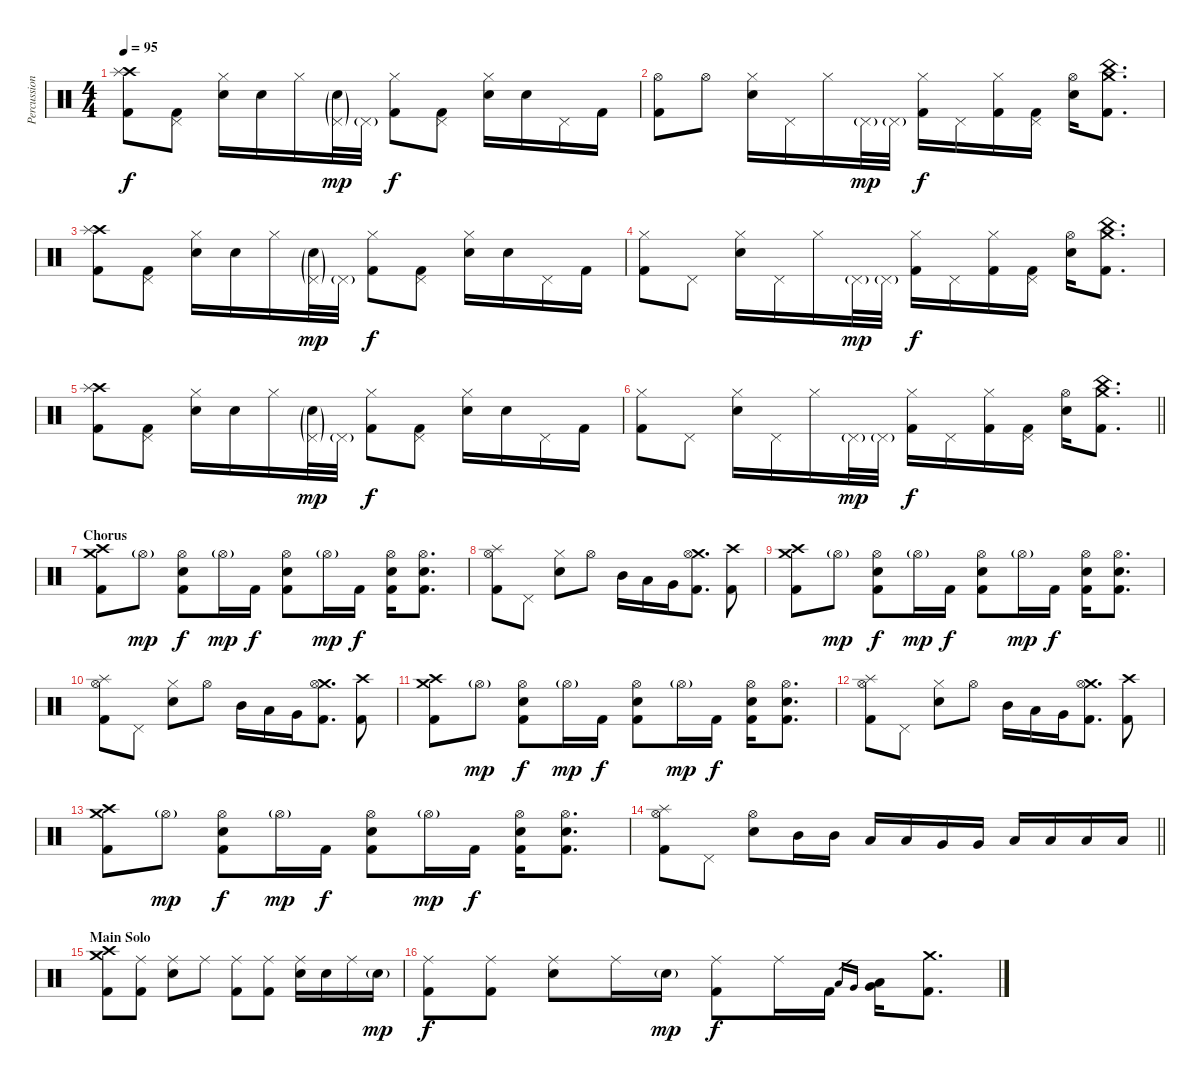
\track ("Percussion" "Percussion") {instrument percussion}
\staff {score}
\articulation defaults
\ts (4 4)
\tempo 95
\clef neutral
\ks c
("Crash high (hit)" "Splash (hit)" "Kick (hit) 2").8{dy f} ("Pedal Hi-Hat (hit)" "Kick (hit) 2").8 ("Snare (hit) 2" "Hi-Hat (closed)").16 "Snare (hit) 2".16 "Hi-Hat (closed)".16 ("Snare (hit) 2"{g} "Pedal Hi-Hat (hit)"{g}).32{dy mp} "Pedal Hi-Hat (hit)"{g}.32 ("Hi-Hat (closed)" "Kick (hit) 2").8{dy f} ("Pedal Hi-Hat (hit)" "Kick (hit) 2").8 ("Snare (hit) 2" "Hi-Hat (closed)").16 "Snare (hit) 2".16 "Pedal Hi-Hat (hit)".16 "Kick (hit) 2".16 |
("Hi-Hat (open)" "Kick (hit) 2").8 "Hi-Hat (open)".8 ("Snare (hit) 2" "Hi-Hat (closed)").16 "Pedal Hi-Hat (hit)".16 "Hi-Hat (closed)".16 "Pedal Hi-Hat (hit)"{g}.32{dy mp} "Pedal Hi-Hat (hit)"{g}.32 ("Hi-Hat (closed)" "Kick (hit) 2").16{dy f} "Pedal Hi-Hat (hit)".16 ("Hi-Hat (closed)" "Kick (hit) 2").16 ("Pedal Hi-Hat (hit)" "Kick (hit) 2").16 ("Snare (hit) 2" "Hi-Hat (open)").16 ("Crash medium (hit)" "China (hit)" "Kick (hit) 2").8{d} |
("Crash high (hit)" "Splash (hit)" "Kick (hit) 2").8 ("Pedal Hi-Hat (hit)" "Kick (hit) 2").8 ("Snare (hit) 2" "Hi-Hat (closed)").16 "Snare (hit) 2".16 "Hi-Hat (closed)".16 ("Snare (hit) 2"{g} "Pedal Hi-Hat (hit)"{g}).32{dy mp} "Pedal Hi-Hat (hit)"{g}.32 ("Hi-Hat (closed)" "Kick (hit) 2").8{dy f} ("Pedal Hi-Hat (hit)" "Kick (hit) 2").8 ("Snare (hit) 2" "Hi-Hat (closed)").16 "Snare (hit) 2".16 "Pedal Hi-Hat (hit)".16 "Kick (hit) 2".16 |
("Hi-Hat (closed)" "Kick (hit) 2").8 "Pedal Hi-Hat (hit)".8 ("Snare (hit) 2" "Hi-Hat (closed)").16 "Pedal Hi-Hat (hit)".16 "Hi-Hat (closed)".16 "Pedal Hi-Hat (hit)"{g}.32{dy mp} "Pedal Hi-Hat (hit)"{g}.32 ("Hi-Hat (closed)" "Kick (hit) 2").16{dy f} "Pedal Hi-Hat (hit)".16 ("Hi-Hat (closed)" "Kick (hit) 2").16 ("Pedal Hi-Hat (hit)" "Kick (hit) 2").16 ("Snare (hit) 2" "Hi-Hat (open)").16 ("Crash medium (hit)" "China (hit)" "Kick (hit) 2").8{d} |
("Crash high (hit)" "Splash (hit)" "Kick (hit) 2").8 ("Pedal Hi-Hat (hit)" "Kick (hit) 2").8 ("Snare (hit) 2" "Hi-Hat (closed)").16 "Snare (hit) 2".16 "Hi-Hat (closed)".16 ("Snare (hit) 2"{g} "Pedal Hi-Hat (hit)"{g}).32{dy mp} "Pedal Hi-Hat (hit)"{g}.32 ("Hi-Hat (closed)" "Kick (hit) 2").8{dy f} ("Pedal Hi-Hat (hit)" "Kick (hit) 2").8 ("Snare (hit) 2" "Hi-Hat (closed)").16 "Snare (hit) 2".16 "Pedal Hi-Hat (hit)".16 "Kick (hit) 2".16 |
\barLineRight lightlight
("Hi-Hat (closed)" "Kick (hit) 2").8 "Pedal Hi-Hat (hit)".8 ("Snare (hit) 2" "Hi-Hat (closed)").16 "Pedal Hi-Hat (hit)".16 "Hi-Hat (closed)".16 "Pedal Hi-Hat (hit)"{g}.32{dy mp} "Pedal Hi-Hat (hit)"{g}.32 ("Hi-Hat (closed)" "Kick (hit) 2").16{dy f} "Pedal Hi-Hat (hit)".16 ("Hi-Hat (closed)" "Kick (hit) 2").16 ("Pedal Hi-Hat (hit)" "Kick (hit) 2").16 ("Snare (hit) 2" "Hi-Hat (open)").16 ("Crash medium (hit)" "China (hit)" "Kick (hit) 2").8{d} |
\section ("" "Chorus")
("Crash medium (hit)" "Crash high (hit)" "Kick (hit) 2").8 "Hi-Hat (open)"{g}.8{dy mp} ("Snare (hit) 2" "Hi-Hat (open)" "Kick (hit) 2").8{dy f} "Hi-Hat (open)"{g}.16{dy mp} "Kick (hit) 2".16{dy f} ("Snare (hit) 2" "Hi-Hat (open)" "Kick (hit) 2").8 "Hi-Hat (open)"{g}.16{dy mp} "Kick (hit) 2".16{dy f} ("Snare (hit) 2" "Hi-Hat (open)" "Kick (hit) 2").16 ("Snare (hit) 2" "Hi-Hat (open)" "Kick (hit) 2").8{d} |
("Splash (hit)" "Hi-Hat (open)" "Kick (hit) 2").8 "Pedal Hi-Hat (hit)".8 ("Snare (hit) 2" "Hi-Hat (closed)").8 "Hi-Hat (open)".8 "Mid Tom (hit)".16 "Low Tom (hit)".16 "Very Low Tom (hit)".16 ("Crash medium (hit)" "Hi-Hat (open)" "Kick (hit) 2").8{d} ("Crash high (hit)" "Kick (hit) 2").8 |
("Crash medium (hit)" "Crash high (hit)" "Kick (hit) 2").8 "Hi-Hat (open)"{g}.8{dy mp} ("Snare (hit) 2" "Hi-Hat (open)" "Kick (hit) 2").8{dy f} "Hi-Hat (open)"{g}.16{dy mp} "Kick (hit) 2".16{dy f} ("Snare (hit) 2" "Hi-Hat (open)" "Kick (hit) 2").8 "Hi-Hat (open)"{g}.16{dy mp} "Kick (hit) 2".16{dy f} ("Snare (hit) 2" "Hi-Hat (open)" "Kick (hit) 2").16 ("Snare (hit) 2" "Hi-Hat (open)" "Kick (hit) 2").8{d} |
("Splash (hit)" "Hi-Hat (open)" "Kick (hit) 2").8 "Pedal Hi-Hat (hit)".8 ("Snare (hit) 2" "Hi-Hat (closed)").8 "Hi-Hat (open)".8 "Mid Tom (hit)".16 "Low Tom (hit)".16 "Very Low Tom (hit)".16 ("Crash medium (hit)" "Hi-Hat (open)" "Kick (hit) 2").8{d} ("Crash high (hit)" "Kick (hit) 2").8 |
("Crash medium (hit)" "Crash high (hit)" "Kick (hit) 2").8 "Hi-Hat (open)"{g}.8{dy mp} ("Snare (hit) 2" "Hi-Hat (open)" "Kick (hit) 2").8{dy f} "Hi-Hat (open)"{g}.16{dy mp} "Kick (hit) 2".16{dy f} ("Snare (hit) 2" "Hi-Hat (open)" "Kick (hit) 2").8 "Hi-Hat (open)"{g}.16{dy mp} "Kick (hit) 2".16{dy f} ("Snare (hit) 2" "Hi-Hat (open)" "Kick (hit) 2").16 ("Snare (hit) 2" "Hi-Hat (open)" "Kick (hit) 2").8{d} |
("Splash (hit)" "Hi-Hat (open)" "Kick (hit) 2").8 "Pedal Hi-Hat (hit)".8 ("Snare (hit) 2" "Hi-Hat (closed)").8 "Hi-Hat (open)".8 "Mid Tom (hit)".16 "Low Tom (hit)".16 "Very Low Tom (hit)".16 ("Crash medium (hit)" "Hi-Hat (open)" "Kick (hit) 2").8{d} ("Crash high (hit)" "Kick (hit) 2").8 |
("Crash medium (hit)" "Crash high (hit)" "Kick (hit) 2").8 "Hi-Hat (open)"{g}.8{dy mp} ("Snare (hit) 2" "Hi-Hat (open)" "Kick (hit) 2").8{dy f} "Hi-Hat (open)"{g}.16{dy mp} "Kick (hit) 2".16{dy f} ("Snare (hit) 2" "Hi-Hat (open)" "Kick (hit) 2").8 "Hi-Hat (open)"{g}.16{dy mp} "Kick (hit) 2".16{dy f} ("Snare (hit) 2" "Hi-Hat (open)" "Kick (hit) 2").16 ("Snare (hit) 2" "Hi-Hat (open)" "Kick (hit) 2").8{d} |
\barLineRight lightlight
("Splash (hit)" "Hi-Hat (open)" "Kick (hit) 2").8 "Pedal Hi-Hat (hit)".8 ("Snare (hit) 2" "Hi-Hat (open)").8 "Mid Tom (hit)".16 "Mid Tom (hit)".16 "Low Tom (hit)".16 "Low Tom (hit)".16 "Very Low Tom (hit)".16 "Very Low Tom (hit)".16 "Low Floor Tom (hit)".16 "Low Floor Tom (hit)".16 "Low Floor Tom (hit)".16 "Low Floor Tom (hit)".16 |
\section ("" "Main Solo")
("Crash medium (hit)" "Crash high (hit)" "Kick (hit) 2").8 ("Ride (middle)" "Kick (hit) 2").8 ("Ride (middle)" "Snare (hit) 2").8 "Ride (middle)".8 ("Ride (middle)" "Kick (hit) 2").8 ("Ride (middle)" "Kick (hit) 2").8 ("Ride (middle)" "Snare (hit) 2").16 "Snare (hit) 2".16 "Ride (middle)".16 "Snare (hit) 2"{g}.16{dy mp} |
("Ride (middle)" "Kick (hit) 2").8{dy f} ("Ride (middle)" "Kick (hit) 2").8 ("Ride (middle)" "Snare (hit) 2").8 "Ride (middle)".16 "Snare (hit) 2"{g}.16{dy mp} ("Ride (middle)" "Kick (hit) 2").8{dy f} "Ride (middle)".16 "Kick (hit) 2".16 "Low Floor Tom (hit)".16{gr} "Very Low Tom (hit)".16{gr} ("Low Floor Tom (hit)" "Very Low Tom (hit)").16 ("Crash medium (hit)" "Kick (hit) 2").8{d}
